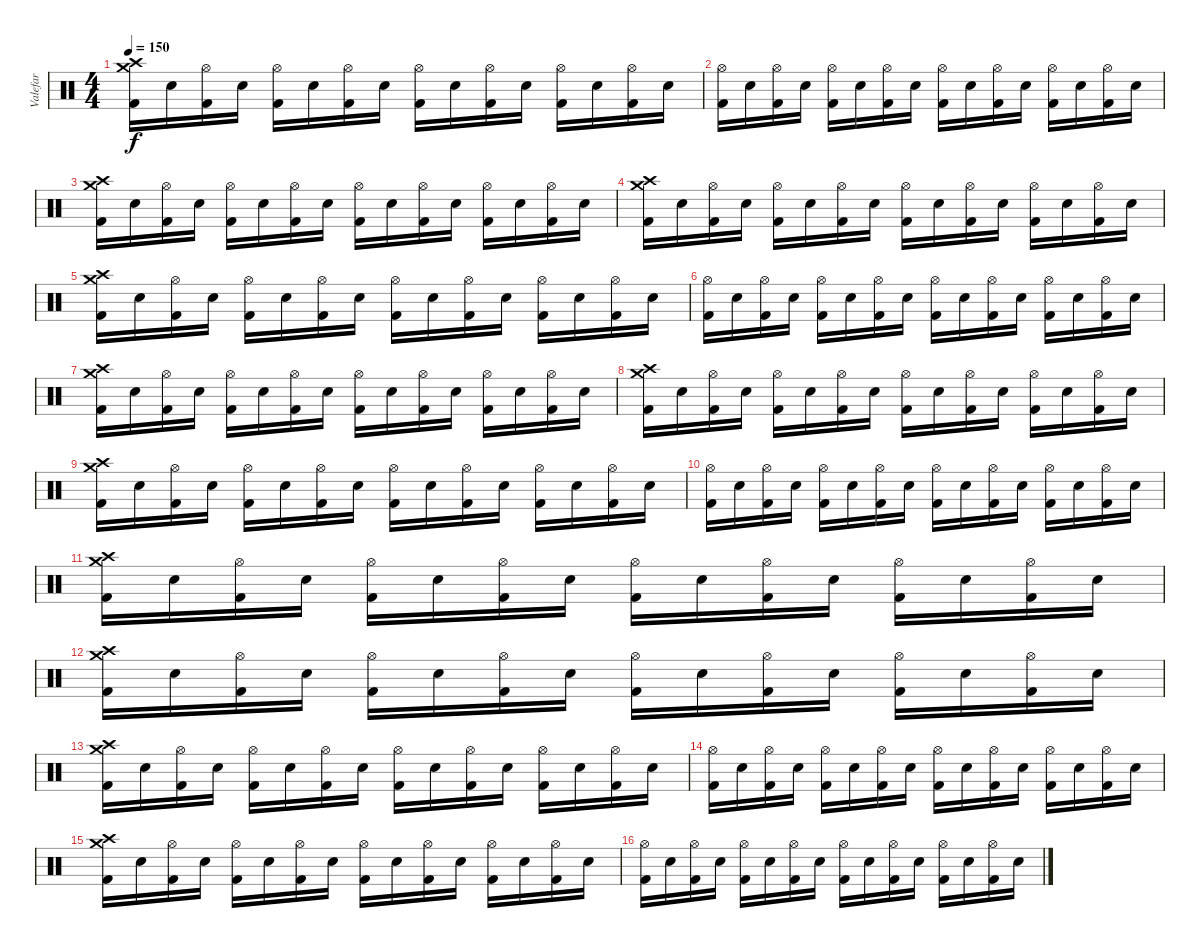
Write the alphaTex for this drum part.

\track ("Valefar" "Valefar") {instrument percussion}
\staff {score}
\articulation defaults
\ts (4 4)
\tempo 150
\clef neutral
\ks c
("Crash medium (hit)" "Crash high (hit)" "Kick (hit) 2").16{dy f} "Electric Snare (hit)".16 ("Hi-Hat (open)" "Kick (hit) 2").16 "Electric Snare (hit)".16 ("Hi-Hat (open)" "Kick (hit) 2").16 "Electric Snare (hit)".16 ("Hi-Hat (open)" "Kick (hit) 2").16 "Electric Snare (hit)".16 ("Hi-Hat (open)" "Kick (hit) 2").16 "Electric Snare (hit)".16 ("Hi-Hat (open)" "Kick (hit) 2").16 "Electric Snare (hit)".16 ("Hi-Hat (open)" "Kick (hit) 2").16 "Electric Snare (hit)".16 ("Hi-Hat (open)" "Kick (hit) 2").16 "Electric Snare (hit)".16 |
("Hi-Hat (open)" "Kick (hit) 2").16 "Electric Snare (hit)".16 ("Hi-Hat (open)" "Kick (hit) 2").16 "Electric Snare (hit)".16 ("Hi-Hat (open)" "Kick (hit) 2").16 "Electric Snare (hit)".16 ("Hi-Hat (open)" "Kick (hit) 2").16 "Electric Snare (hit)".16 ("Hi-Hat (open)" "Kick (hit) 2").16 "Electric Snare (hit)".16 ("Hi-Hat (open)" "Kick (hit) 2").16 "Electric Snare (hit)".16 ("Hi-Hat (open)" "Kick (hit) 2").16 "Electric Snare (hit)".16 ("Hi-Hat (open)" "Kick (hit) 2").16 "Electric Snare (hit)".16 |
("Crash medium (hit)" "Crash high (hit)" "Kick (hit) 2").16 "Electric Snare (hit)".16 ("Hi-Hat (open)" "Kick (hit) 2").16 "Electric Snare (hit)".16 ("Hi-Hat (open)" "Kick (hit) 2").16 "Electric Snare (hit)".16 ("Hi-Hat (open)" "Kick (hit) 2").16 "Electric Snare (hit)".16 ("Hi-Hat (open)" "Kick (hit) 2").16 "Electric Snare (hit)".16 ("Hi-Hat (open)" "Kick (hit) 2").16 "Electric Snare (hit)".16 ("Hi-Hat (open)" "Kick (hit) 2").16 "Electric Snare (hit)".16 ("Hi-Hat (open)" "Kick (hit) 2").16 "Electric Snare (hit)".16 |
("Crash medium (hit)" "Crash high (hit)" "Kick (hit) 2").16 "Electric Snare (hit)".16 ("Hi-Hat (open)" "Kick (hit) 2").16 "Electric Snare (hit)".16 ("Hi-Hat (open)" "Kick (hit) 2").16 "Electric Snare (hit)".16 ("Hi-Hat (open)" "Kick (hit) 2").16 "Electric Snare (hit)".16 ("Hi-Hat (open)" "Kick (hit) 2").16 "Electric Snare (hit)".16 ("Hi-Hat (open)" "Kick (hit) 2").16 "Electric Snare (hit)".16 ("Hi-Hat (open)" "Kick (hit) 2").16 "Electric Snare (hit)".16 ("Hi-Hat (open)" "Kick (hit) 2").16 "Electric Snare (hit)".16 |
("Crash medium (hit)" "Crash high (hit)" "Kick (hit) 2").16 "Electric Snare (hit)".16 ("Hi-Hat (open)" "Kick (hit) 2").16 "Electric Snare (hit)".16 ("Hi-Hat (open)" "Kick (hit) 2").16 "Electric Snare (hit)".16 ("Hi-Hat (open)" "Kick (hit) 2").16 "Electric Snare (hit)".16 ("Hi-Hat (open)" "Kick (hit) 2").16 "Electric Snare (hit)".16 ("Hi-Hat (open)" "Kick (hit) 2").16 "Electric Snare (hit)".16 ("Hi-Hat (open)" "Kick (hit) 2").16 "Electric Snare (hit)".16 ("Hi-Hat (open)" "Kick (hit) 2").16 "Electric Snare (hit)".16 |
("Hi-Hat (open)" "Kick (hit) 2").16 "Electric Snare (hit)".16 ("Hi-Hat (open)" "Kick (hit) 2").16 "Electric Snare (hit)".16 ("Hi-Hat (open)" "Kick (hit) 2").16 "Electric Snare (hit)".16 ("Hi-Hat (open)" "Kick (hit) 2").16 "Electric Snare (hit)".16 ("Hi-Hat (open)" "Kick (hit) 2").16 "Electric Snare (hit)".16 ("Hi-Hat (open)" "Kick (hit) 2").16 "Electric Snare (hit)".16 ("Hi-Hat (open)" "Kick (hit) 2").16 "Electric Snare (hit)".16 ("Hi-Hat (open)" "Kick (hit) 2").16 "Electric Snare (hit)".16 |
("Crash medium (hit)" "Crash high (hit)" "Kick (hit) 2").16 "Electric Snare (hit)".16 ("Hi-Hat (open)" "Kick (hit) 2").16 "Electric Snare (hit)".16 ("Hi-Hat (open)" "Kick (hit) 2").16 "Electric Snare (hit)".16 ("Hi-Hat (open)" "Kick (hit) 2").16 "Electric Snare (hit)".16 ("Hi-Hat (open)" "Kick (hit) 2").16 "Electric Snare (hit)".16 ("Hi-Hat (open)" "Kick (hit) 2").16 "Electric Snare (hit)".16 ("Hi-Hat (open)" "Kick (hit) 2").16 "Electric Snare (hit)".16 ("Hi-Hat (open)" "Kick (hit) 2").16 "Electric Snare (hit)".16 |
("Crash medium (hit)" "Crash high (hit)" "Kick (hit) 2").16 "Electric Snare (hit)".16 ("Hi-Hat (open)" "Kick (hit) 2").16 "Electric Snare (hit)".16 ("Hi-Hat (open)" "Kick (hit) 2").16 "Electric Snare (hit)".16 ("Hi-Hat (open)" "Kick (hit) 2").16 "Electric Snare (hit)".16 ("Hi-Hat (open)" "Kick (hit) 2").16 "Electric Snare (hit)".16 ("Hi-Hat (open)" "Kick (hit) 2").16 "Electric Snare (hit)".16 ("Hi-Hat (open)" "Kick (hit) 2").16 "Electric Snare (hit)".16 ("Hi-Hat (open)" "Kick (hit) 2").16 "Electric Snare (hit)".16 |
("Crash medium (hit)" "Crash high (hit)" "Kick (hit) 2").16 "Electric Snare (hit)".16 ("Hi-Hat (open)" "Kick (hit) 2").16 "Electric Snare (hit)".16 ("Hi-Hat (open)" "Kick (hit) 2").16 "Electric Snare (hit)".16 ("Hi-Hat (open)" "Kick (hit) 2").16 "Electric Snare (hit)".16 ("Hi-Hat (open)" "Kick (hit) 2").16 "Electric Snare (hit)".16 ("Hi-Hat (open)" "Kick (hit) 2").16 "Electric Snare (hit)".16 ("Hi-Hat (open)" "Kick (hit) 2").16 "Electric Snare (hit)".16 ("Hi-Hat (open)" "Kick (hit) 2").16 "Electric Snare (hit)".16 |
("Hi-Hat (open)" "Kick (hit) 2").16 "Electric Snare (hit)".16 ("Hi-Hat (open)" "Kick (hit) 2").16 "Electric Snare (hit)".16 ("Hi-Hat (open)" "Kick (hit) 2").16 "Electric Snare (hit)".16 ("Hi-Hat (open)" "Kick (hit) 2").16 "Electric Snare (hit)".16 ("Hi-Hat (open)" "Kick (hit) 2").16 "Electric Snare (hit)".16 ("Hi-Hat (open)" "Kick (hit) 2").16 "Electric Snare (hit)".16 ("Hi-Hat (open)" "Kick (hit) 2").16 "Electric Snare (hit)".16 ("Hi-Hat (open)" "Kick (hit) 2").16 "Electric Snare (hit)".16 |
("Crash medium (hit)" "Crash high (hit)" "Kick (hit) 2").16 "Electric Snare (hit)".16 ("Hi-Hat (open)" "Kick (hit) 2").16 "Electric Snare (hit)".16 ("Hi-Hat (open)" "Kick (hit) 2").16 "Electric Snare (hit)".16 ("Hi-Hat (open)" "Kick (hit) 2").16 "Electric Snare (hit)".16 ("Hi-Hat (open)" "Kick (hit) 2").16 "Electric Snare (hit)".16 ("Hi-Hat (open)" "Kick (hit) 2").16 "Electric Snare (hit)".16 ("Hi-Hat (open)" "Kick (hit) 2").16 "Electric Snare (hit)".16 ("Hi-Hat (open)" "Kick (hit) 2").16 "Electric Snare (hit)".16 |
("Crash medium (hit)" "Crash high (hit)" "Kick (hit) 2").16 "Electric Snare (hit)".16 ("Hi-Hat (open)" "Kick (hit) 2").16 "Electric Snare (hit)".16 ("Hi-Hat (open)" "Kick (hit) 2").16 "Electric Snare (hit)".16 ("Hi-Hat (open)" "Kick (hit) 2").16 "Electric Snare (hit)".16 ("Hi-Hat (open)" "Kick (hit) 2").16 "Electric Snare (hit)".16 ("Hi-Hat (open)" "Kick (hit) 2").16 "Electric Snare (hit)".16 ("Hi-Hat (open)" "Kick (hit) 2").16 "Electric Snare (hit)".16 ("Hi-Hat (open)" "Kick (hit) 2").16 "Electric Snare (hit)".16 |
("Crash medium (hit)" "Crash high (hit)" "Kick (hit) 2").16 "Electric Snare (hit)".16 ("Hi-Hat (open)" "Kick (hit) 2").16 "Electric Snare (hit)".16 ("Hi-Hat (open)" "Kick (hit) 2").16 "Electric Snare (hit)".16 ("Hi-Hat (open)" "Kick (hit) 2").16 "Electric Snare (hit)".16 ("Hi-Hat (open)" "Kick (hit) 2").16 "Electric Snare (hit)".16 ("Hi-Hat (open)" "Kick (hit) 2").16 "Electric Snare (hit)".16 ("Hi-Hat (open)" "Kick (hit) 2").16 "Electric Snare (hit)".16 ("Hi-Hat (open)" "Kick (hit) 2").16 "Electric Snare (hit)".16 |
("Hi-Hat (open)" "Kick (hit) 2").16 "Electric Snare (hit)".16 ("Hi-Hat (open)" "Kick (hit) 2").16 "Electric Snare (hit)".16 ("Hi-Hat (open)" "Kick (hit) 2").16 "Electric Snare (hit)".16 ("Hi-Hat (open)" "Kick (hit) 2").16 "Electric Snare (hit)".16 ("Hi-Hat (open)" "Kick (hit) 2").16 "Electric Snare (hit)".16 ("Hi-Hat (open)" "Kick (hit) 2").16 "Electric Snare (hit)".16 ("Hi-Hat (open)" "Kick (hit) 2").16 "Electric Snare (hit)".16 ("Hi-Hat (open)" "Kick (hit) 2").16 "Electric Snare (hit)".16 |
("Crash medium (hit)" "Crash high (hit)" "Kick (hit) 2").16 "Electric Snare (hit)".16 ("Hi-Hat (open)" "Kick (hit) 2").16 "Electric Snare (hit)".16 ("Hi-Hat (open)" "Kick (hit) 2").16 "Electric Snare (hit)".16 ("Hi-Hat (open)" "Kick (hit) 2").16 "Electric Snare (hit)".16 ("Hi-Hat (open)" "Kick (hit) 2").16 "Electric Snare (hit)".16 ("Hi-Hat (open)" "Kick (hit) 2").16 "Electric Snare (hit)".16 ("Hi-Hat (open)" "Kick (hit) 2").16 "Electric Snare (hit)".16 ("Hi-Hat (open)" "Kick (hit) 2").16 "Electric Snare (hit)".16 |
("Hi-Hat (open)" "Kick (hit) 2").16 "Electric Snare (hit)".16 ("Hi-Hat (open)" "Kick (hit) 2").16 "Electric Snare (hit)".16 ("Hi-Hat (open)" "Kick (hit) 2").16 "Electric Snare (hit)".16 ("Hi-Hat (open)" "Kick (hit) 2").16 "Electric Snare (hit)".16 ("Hi-Hat (open)" "Kick (hit) 2").16 "Electric Snare (hit)".16 ("Hi-Hat (open)" "Kick (hit) 2").16 "Electric Snare (hit)".16 ("Hi-Hat (open)" "Kick (hit) 2").16 "Electric Snare (hit)".16 ("Hi-Hat (open)" "Kick (hit) 2").16 "Electric Snare (hit)".16
